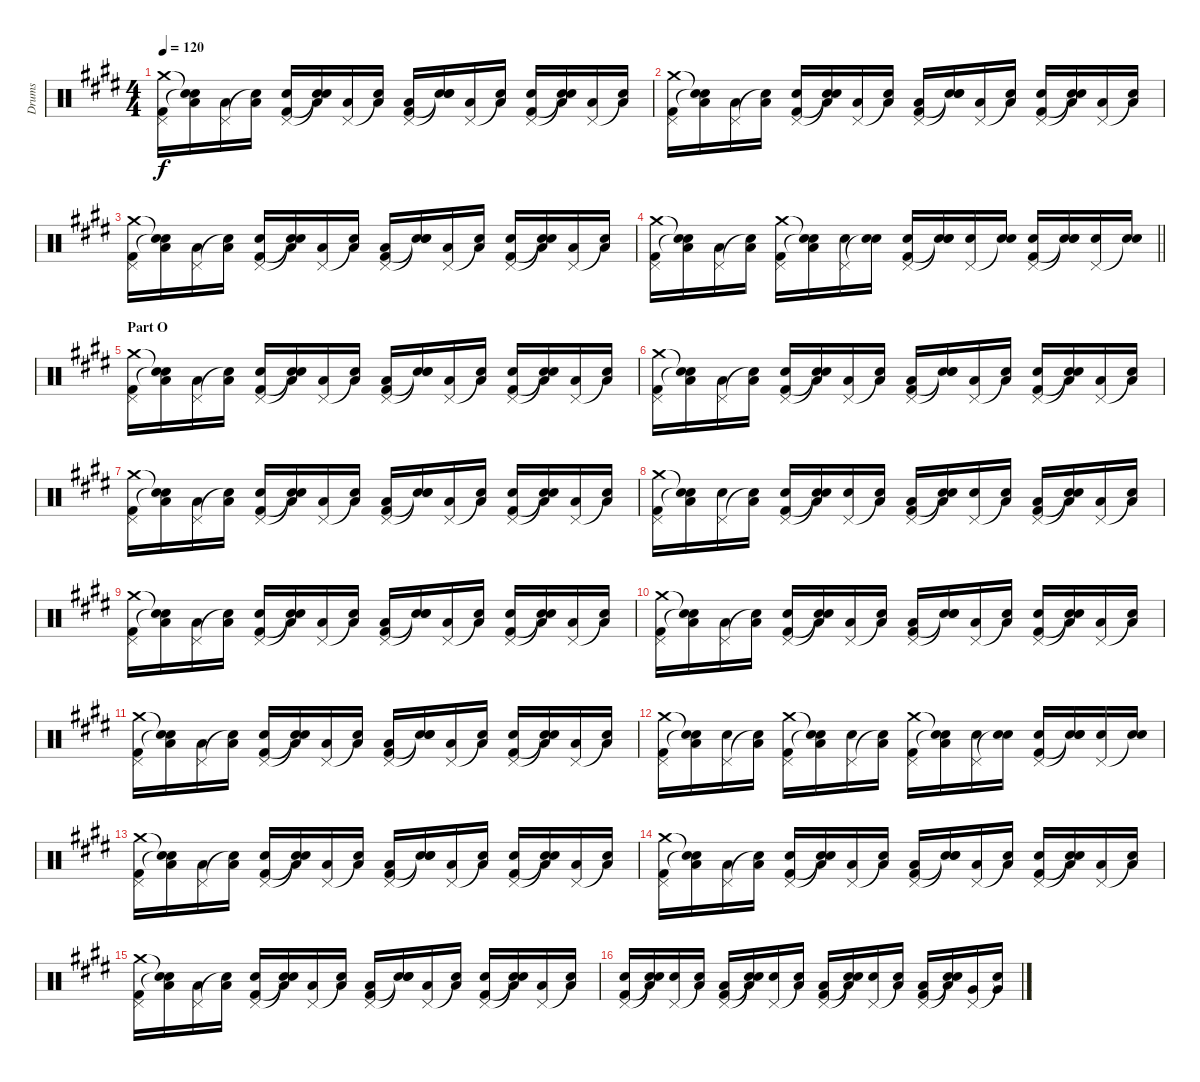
\track ("Drums" "Drums") {instrument percussion}
\staff {score}
\articulation defaults
\ts (4 4)
\tempo 120
\clef neutral
\ks e
("Crash medium (hit)" "Pedal Hi-Hat (hit)" "Kick (hit) 2").16{dy f} ("Snare (hit)"{t} "Low Floor Tom (hit)" "Snare (hit)"{t}).16 ("Pedal Hi-Hat (hit)" "Low Floor Tom (hit)").16 ("Snare (hit)"{t} "Low Floor Tom (hit)").16 ("Pedal Hi-Hat (hit)" "Electric Snare (hit)" "Kick (hit) 2").16 ("Snare (hit)"{t} "Low Floor Tom (hit)" "Snare (hit)"{t}).16 ("Pedal Hi-Hat (hit)" "Low Floor Tom (hit)").16 ("Snare (hit)"{t} "Low Floor Tom (hit)").16 ("Pedal Hi-Hat (hit)" "Low Floor Tom (hit)" "Kick (hit) 2").16 ("Snare (hit)"{t} "Electric Snare (hit)" "Snare (hit)"{t}).16 ("Pedal Hi-Hat (hit)" "Low Floor Tom (hit)").16 ("Snare (hit)"{t} "Low Floor Tom (hit)").16 ("Pedal Hi-Hat (hit)" "Electric Snare (hit)" "Kick (hit) 2").16 ("Snare (hit)"{t} "Low Floor Tom (hit)" "Snare (hit)"{t}).16 ("Pedal Hi-Hat (hit)" "Low Floor Tom (hit)").16 ("Snare (hit)"{t} "Low Floor Tom (hit)").16 |
("Crash medium (hit)" "Pedal Hi-Hat (hit)" "Kick (hit) 2").16 ("Snare (hit)"{t} "Low Floor Tom (hit)" "Snare (hit)"{t}).16 ("Pedal Hi-Hat (hit)" "Low Floor Tom (hit)").16 ("Snare (hit)"{t} "Low Floor Tom (hit)").16 ("Pedal Hi-Hat (hit)" "Electric Snare (hit)" "Kick (hit) 2").16 ("Snare (hit)"{t} "Low Floor Tom (hit)" "Snare (hit)"{t}).16 ("Pedal Hi-Hat (hit)" "Low Floor Tom (hit)").16 ("Snare (hit)"{t} "Low Floor Tom (hit)").16 ("Pedal Hi-Hat (hit)" "Low Floor Tom (hit)" "Kick (hit) 2").16 ("Snare (hit)"{t} "Electric Snare (hit)" "Snare (hit)"{t}).16 ("Pedal Hi-Hat (hit)" "Low Floor Tom (hit)").16 ("Snare (hit)"{t} "Low Floor Tom (hit)").16 ("Pedal Hi-Hat (hit)" "Electric Snare (hit)" "Kick (hit) 2").16 ("Snare (hit)"{t} "Low Floor Tom (hit)" "Snare (hit)"{t}).16 ("Pedal Hi-Hat (hit)" "Low Floor Tom (hit)").16 ("Snare (hit)"{t} "Low Floor Tom (hit)").16 |
("Crash medium (hit)" "Pedal Hi-Hat (hit)" "Kick (hit) 2").16 ("Snare (hit)"{t} "Low Floor Tom (hit)" "Snare (hit)"{t}).16 ("Pedal Hi-Hat (hit)" "Low Floor Tom (hit)").16 ("Snare (hit)"{t} "Low Floor Tom (hit)").16 ("Pedal Hi-Hat (hit)" "Electric Snare (hit)" "Kick (hit) 2").16 ("Snare (hit)"{t} "Low Floor Tom (hit)" "Snare (hit)"{t}).16 ("Pedal Hi-Hat (hit)" "Low Floor Tom (hit)").16 ("Snare (hit)"{t} "Low Floor Tom (hit)").16 ("Pedal Hi-Hat (hit)" "Low Floor Tom (hit)" "Kick (hit) 2").16 ("Snare (hit)"{t} "Electric Snare (hit)" "Snare (hit)"{t}).16 ("Pedal Hi-Hat (hit)" "Low Floor Tom (hit)").16 ("Snare (hit)"{t} "Low Floor Tom (hit)").16 ("Pedal Hi-Hat (hit)" "Electric Snare (hit)" "Kick (hit) 2").16 ("Snare (hit)"{t} "Low Floor Tom (hit)" "Snare (hit)"{t}).16 ("Pedal Hi-Hat (hit)" "Low Floor Tom (hit)").16 ("Snare (hit)"{t} "Low Floor Tom (hit)").16 |
\barLineRight lightlight
("Crash medium (hit)" "Pedal Hi-Hat (hit)" "Kick (hit) 2").16 ("Snare (hit)"{t} "Low Floor Tom (hit)" "Snare (hit)"{t}).16 ("Pedal Hi-Hat (hit)" "Low Floor Tom (hit)").16 ("Snare (hit)"{t} "Low Floor Tom (hit)").16 ("Crash medium (hit)" "Pedal Hi-Hat (hit)" "Kick (hit) 2").16 ("Snare (hit)"{t} "Low Floor Tom (hit)" "Snare (hit)"{t}).16 ("Pedal Hi-Hat (hit)" "Electric Snare (hit)").16 ("Snare (hit)"{t} "Electric Snare (hit)").16 ("Pedal Hi-Hat (hit)" "Electric Snare (hit)" "Kick (hit) 2").16 ("Snare (hit)"{t} "Electric Snare (hit)" "Snare (hit)"{t}).16 ("Pedal Hi-Hat (hit)" "Electric Snare (hit)").16 ("Snare (hit)"{t} "Electric Snare (hit)").16 ("Pedal Hi-Hat (hit)" "Electric Snare (hit)" "Kick (hit) 2").16 ("Snare (hit)"{t} "Electric Snare (hit)" "Snare (hit)"{t}).16 ("Pedal Hi-Hat (hit)" "Electric Snare (hit)").16 ("Snare (hit)"{t} "Electric Snare (hit)").16 |
\section ("" "Part O")
("Crash medium (hit)" "Pedal Hi-Hat (hit)" "Kick (hit) 2").16 ("Snare (hit)"{t} "Low Floor Tom (hit)" "Snare (hit)"{t}).16 ("Pedal Hi-Hat (hit)" "Low Floor Tom (hit)").16 ("Snare (hit)"{t} "Low Floor Tom (hit)").16 ("Pedal Hi-Hat (hit)" "Electric Snare (hit)" "Kick (hit) 2").16 ("Snare (hit)"{t} "Low Floor Tom (hit)" "Snare (hit)"{t}).16 ("Pedal Hi-Hat (hit)" "Low Floor Tom (hit)").16 ("Snare (hit)"{t} "Low Floor Tom (hit)").16 ("Pedal Hi-Hat (hit)" "Low Floor Tom (hit)" "Kick (hit) 2").16 ("Snare (hit)"{t} "Electric Snare (hit)" "Snare (hit)"{t}).16 ("Pedal Hi-Hat (hit)" "Low Floor Tom (hit)").16 ("Snare (hit)"{t} "Low Floor Tom (hit)").16 ("Pedal Hi-Hat (hit)" "Electric Snare (hit)" "Kick (hit) 2").16 ("Snare (hit)"{t} "Low Floor Tom (hit)" "Snare (hit)"{t}).16 ("Pedal Hi-Hat (hit)" "Low Floor Tom (hit)").16 ("Snare (hit)"{t} "Low Floor Tom (hit)").16 |
("Crash medium (hit)" "Pedal Hi-Hat (hit)" "Kick (hit) 2").16 ("Snare (hit)"{t} "Low Floor Tom (hit)" "Snare (hit)"{t}).16 ("Pedal Hi-Hat (hit)" "Low Floor Tom (hit)").16 ("Snare (hit)"{t} "Low Floor Tom (hit)").16 ("Pedal Hi-Hat (hit)" "Electric Snare (hit)" "Kick (hit) 2").16 ("Snare (hit)"{t} "Low Floor Tom (hit)" "Snare (hit)"{t}).16 ("Pedal Hi-Hat (hit)" "Low Floor Tom (hit)").16 ("Snare (hit)"{t} "Low Floor Tom (hit)").16 ("Pedal Hi-Hat (hit)" "Low Floor Tom (hit)" "Kick (hit) 2").16 ("Snare (hit)"{t} "Electric Snare (hit)" "Snare (hit)"{t}).16 ("Pedal Hi-Hat (hit)" "Low Floor Tom (hit)").16 ("Snare (hit)"{t} "Low Floor Tom (hit)").16 ("Pedal Hi-Hat (hit)" "Electric Snare (hit)" "Kick (hit) 2").16 ("Snare (hit)"{t} "Low Floor Tom (hit)" "Snare (hit)"{t}).16 ("Pedal Hi-Hat (hit)" "Low Floor Tom (hit)").16 ("Snare (hit)"{t} "Low Floor Tom (hit)").16 |
("Crash medium (hit)" "Pedal Hi-Hat (hit)" "Kick (hit) 2").16 ("Snare (hit)"{t} "Low Floor Tom (hit)" "Snare (hit)"{t}).16 ("Pedal Hi-Hat (hit)" "Low Floor Tom (hit)").16 ("Snare (hit)"{t} "Low Floor Tom (hit)").16 ("Pedal Hi-Hat (hit)" "Electric Snare (hit)" "Kick (hit) 2").16 ("Snare (hit)"{t} "Low Floor Tom (hit)" "Snare (hit)"{t}).16 ("Pedal Hi-Hat (hit)" "Low Floor Tom (hit)").16 ("Snare (hit)"{t} "Low Floor Tom (hit)").16 ("Pedal Hi-Hat (hit)" "Low Floor Tom (hit)" "Kick (hit) 2").16 ("Snare (hit)"{t} "Electric Snare (hit)" "Snare (hit)"{t}).16 ("Pedal Hi-Hat (hit)" "Low Floor Tom (hit)").16 ("Snare (hit)"{t} "Low Floor Tom (hit)").16 ("Pedal Hi-Hat (hit)" "Electric Snare (hit)" "Kick (hit) 2").16 ("Snare (hit)"{t} "Low Floor Tom (hit)" "Snare (hit)"{t}).16 ("Pedal Hi-Hat (hit)" "Low Floor Tom (hit)").16 ("Snare (hit)"{t} "Low Floor Tom (hit)").16 |
("Crash medium (hit)" "Pedal Hi-Hat (hit)" "Kick (hit) 2").16 ("Snare (hit)"{t} "Low Floor Tom (hit)" "Snare (hit)"{t}).16 ("Pedal Hi-Hat (hit)" "Electric Snare (hit)").16 ("Snare (hit)"{t} "Low Floor Tom (hit)").16 ("Pedal Hi-Hat (hit)" "Electric Snare (hit)" "Kick (hit) 2").16 ("Snare (hit)"{t} "Low Floor Tom (hit)" "Snare (hit)"{t}).16 ("Pedal Hi-Hat (hit)" "Electric Snare (hit)").16 ("Snare (hit)"{t} "Low Floor Tom (hit)").16 ("Pedal Hi-Hat (hit)" "Low Floor Tom (hit)" "Kick (hit) 2").16 ("Snare (hit)"{t} "Low Floor Tom (hit)" "Snare (hit)"{t}).16 ("Pedal Hi-Hat (hit)" "Electric Snare (hit)").16 ("Snare (hit)"{t} "Low Floor Tom (hit)").16 ("Pedal Hi-Hat (hit)" "Low Floor Tom (hit)" "Kick (hit) 2").16 ("Snare (hit)"{t} "Low Floor Tom (hit)" "Snare (hit)"{t}).16 ("Pedal Hi-Hat (hit)" "Low Floor Tom (hit)").16 ("Snare (hit)"{t} "Low Floor Tom (hit)").16 |
("Crash medium (hit)" "Pedal Hi-Hat (hit)" "Kick (hit) 2").16 ("Snare (hit)"{t} "Low Floor Tom (hit)" "Snare (hit)"{t}).16 ("Pedal Hi-Hat (hit)" "Low Floor Tom (hit)").16 ("Snare (hit)"{t} "Low Floor Tom (hit)").16 ("Pedal Hi-Hat (hit)" "Electric Snare (hit)" "Kick (hit) 2").16 ("Snare (hit)"{t} "Low Floor Tom (hit)" "Snare (hit)"{t}).16 ("Pedal Hi-Hat (hit)" "Low Floor Tom (hit)").16 ("Snare (hit)"{t} "Low Floor Tom (hit)").16 ("Pedal Hi-Hat (hit)" "Low Floor Tom (hit)" "Kick (hit) 2").16 ("Snare (hit)"{t} "Electric Snare (hit)" "Snare (hit)"{t}).16 ("Pedal Hi-Hat (hit)" "Low Floor Tom (hit)").16 ("Snare (hit)"{t} "Low Floor Tom (hit)").16 ("Pedal Hi-Hat (hit)" "Electric Snare (hit)" "Kick (hit) 2").16 ("Snare (hit)"{t} "Low Floor Tom (hit)" "Snare (hit)"{t}).16 ("Pedal Hi-Hat (hit)" "Low Floor Tom (hit)").16 ("Snare (hit)"{t} "Low Floor Tom (hit)").16 |
("Crash medium (hit)" "Pedal Hi-Hat (hit)" "Kick (hit) 2").16 ("Snare (hit)"{t} "Low Floor Tom (hit)" "Snare (hit)"{t}).16 ("Pedal Hi-Hat (hit)" "Low Floor Tom (hit)").16 ("Snare (hit)"{t} "Low Floor Tom (hit)").16 ("Pedal Hi-Hat (hit)" "Electric Snare (hit)" "Kick (hit) 2").16 ("Snare (hit)"{t} "Low Floor Tom (hit)" "Snare (hit)"{t}).16 ("Pedal Hi-Hat (hit)" "Low Floor Tom (hit)").16 ("Snare (hit)"{t} "Low Floor Tom (hit)").16 ("Pedal Hi-Hat (hit)" "Low Floor Tom (hit)" "Kick (hit) 2").16 ("Snare (hit)"{t} "Electric Snare (hit)" "Snare (hit)"{t}).16 ("Pedal Hi-Hat (hit)" "Low Floor Tom (hit)").16 ("Snare (hit)"{t} "Low Floor Tom (hit)").16 ("Pedal Hi-Hat (hit)" "Electric Snare (hit)" "Kick (hit) 2").16 ("Snare (hit)"{t} "Low Floor Tom (hit)" "Snare (hit)"{t}).16 ("Pedal Hi-Hat (hit)" "Low Floor Tom (hit)").16 ("Snare (hit)"{t} "Low Floor Tom (hit)").16 |
("Crash medium (hit)" "Pedal Hi-Hat (hit)" "Kick (hit) 2").16 ("Snare (hit)"{t} "Low Floor Tom (hit)" "Snare (hit)"{t}).16 ("Pedal Hi-Hat (hit)" "Low Floor Tom (hit)").16 ("Snare (hit)"{t} "Low Floor Tom (hit)").16 ("Pedal Hi-Hat (hit)" "Electric Snare (hit)" "Kick (hit) 2").16 ("Snare (hit)"{t} "Low Floor Tom (hit)" "Snare (hit)"{t}).16 ("Pedal Hi-Hat (hit)" "Low Floor Tom (hit)").16 ("Snare (hit)"{t} "Low Floor Tom (hit)").16 ("Pedal Hi-Hat (hit)" "Low Floor Tom (hit)" "Kick (hit) 2").16 ("Snare (hit)"{t} "Electric Snare (hit)" "Snare (hit)"{t}).16 ("Pedal Hi-Hat (hit)" "Low Floor Tom (hit)").16 ("Snare (hit)"{t} "Low Floor Tom (hit)").16 ("Pedal Hi-Hat (hit)" "Electric Snare (hit)" "Kick (hit) 2").16 ("Snare (hit)"{t} "Low Floor Tom (hit)" "Snare (hit)"{t}).16 ("Pedal Hi-Hat (hit)" "Low Floor Tom (hit)").16 ("Snare (hit)"{t} "Low Floor Tom (hit)").16 |
("Crash medium (hit)" "Pedal Hi-Hat (hit)" "Kick (hit) 2").16 ("Snare (hit)"{t} "Low Floor Tom (hit)" "Snare (hit)"{t}).16 ("Pedal Hi-Hat (hit)" "Electric Snare (hit)").16 ("Snare (hit)"{t} "Low Floor Tom (hit)").16 ("Crash medium (hit)" "Pedal Hi-Hat (hit)" "Kick (hit) 2").16 ("Snare (hit)"{t} "Low Floor Tom (hit)" "Snare (hit)"{t}).16 ("Pedal Hi-Hat (hit)" "Electric Snare (hit)").16 ("Snare (hit)"{t} "Low Floor Tom (hit)").16 ("Crash medium (hit)" "Pedal Hi-Hat (hit)" "Kick (hit) 2").16 ("Snare (hit)"{t} "Low Floor Tom (hit)" "Snare (hit)"{t}).16 ("Pedal Hi-Hat (hit)" "Electric Snare (hit)").16 ("Snare (hit)"{t} "Electric Snare (hit)").16 ("Pedal Hi-Hat (hit)" "Electric Snare (hit)" "Kick (hit) 2").16 ("Snare (hit)"{t} "Electric Snare (hit)" "Snare (hit)"{t}).16 ("Pedal Hi-Hat (hit)" "Electric Snare (hit)").16 ("Snare (hit)"{t} "Electric Snare (hit)").16 |
("Crash medium (hit)" "Pedal Hi-Hat (hit)" "Kick (hit) 2").16 ("Snare (hit)"{t} "Low Floor Tom (hit)" "Snare (hit)"{t}).16 ("Pedal Hi-Hat (hit)" "Low Floor Tom (hit)").16 ("Snare (hit)"{t} "Low Floor Tom (hit)").16 ("Pedal Hi-Hat (hit)" "Electric Snare (hit)" "Kick (hit) 2").16 ("Snare (hit)"{t} "Low Floor Tom (hit)" "Snare (hit)"{t}).16 ("Pedal Hi-Hat (hit)" "Low Floor Tom (hit)").16 ("Snare (hit)"{t} "Low Floor Tom (hit)").16 ("Pedal Hi-Hat (hit)" "Low Floor Tom (hit)" "Kick (hit) 2").16 ("Snare (hit)"{t} "Electric Snare (hit)" "Snare (hit)"{t}).16 ("Pedal Hi-Hat (hit)" "Low Floor Tom (hit)").16 ("Snare (hit)"{t} "Low Floor Tom (hit)").16 ("Pedal Hi-Hat (hit)" "Electric Snare (hit)" "Kick (hit) 2").16 ("Snare (hit)"{t} "Low Floor Tom (hit)" "Snare (hit)"{t}).16 ("Pedal Hi-Hat (hit)" "Low Floor Tom (hit)").16 ("Snare (hit)"{t} "Low Floor Tom (hit)").16 |
("Crash medium (hit)" "Pedal Hi-Hat (hit)" "Kick (hit) 2").16 ("Snare (hit)"{t} "Low Floor Tom (hit)" "Snare (hit)"{t}).16 ("Pedal Hi-Hat (hit)" "Low Floor Tom (hit)").16 ("Snare (hit)"{t} "Low Floor Tom (hit)").16 ("Pedal Hi-Hat (hit)" "Electric Snare (hit)" "Kick (hit) 2").16 ("Snare (hit)"{t} "Low Floor Tom (hit)" "Snare (hit)"{t}).16 ("Pedal Hi-Hat (hit)" "Low Floor Tom (hit)").16 ("Snare (hit)"{t} "Low Floor Tom (hit)").16 ("Pedal Hi-Hat (hit)" "Low Floor Tom (hit)" "Kick (hit) 2").16 ("Snare (hit)"{t} "Electric Snare (hit)" "Snare (hit)"{t}).16 ("Pedal Hi-Hat (hit)" "Low Floor Tom (hit)").16 ("Snare (hit)"{t} "Low Floor Tom (hit)").16 ("Pedal Hi-Hat (hit)" "Electric Snare (hit)" "Kick (hit) 2").16 ("Snare (hit)"{t} "Low Floor Tom (hit)" "Snare (hit)"{t}).16 ("Pedal Hi-Hat (hit)" "Low Floor Tom (hit)").16 ("Snare (hit)"{t} "Low Floor Tom (hit)").16 |
("Crash medium (hit)" "Pedal Hi-Hat (hit)" "Kick (hit) 2").16 ("Snare (hit)"{t} "Low Floor Tom (hit)" "Snare (hit)"{t}).16 ("Pedal Hi-Hat (hit)" "Low Floor Tom (hit)").16 ("Snare (hit)"{t} "Low Floor Tom (hit)").16 ("Pedal Hi-Hat (hit)" "Electric Snare (hit)" "Kick (hit) 2").16 ("Snare (hit)"{t} "Low Floor Tom (hit)" "Snare (hit)"{t}).16 ("Pedal Hi-Hat (hit)" "Low Floor Tom (hit)").16 ("Snare (hit)"{t} "Low Floor Tom (hit)").16 ("Pedal Hi-Hat (hit)" "Low Floor Tom (hit)" "Kick (hit) 2").16 ("Snare (hit)"{t} "Electric Snare (hit)" "Snare (hit)"{t}).16 ("Pedal Hi-Hat (hit)" "Low Floor Tom (hit)").16 ("Snare (hit)"{t} "Low Floor Tom (hit)").16 ("Pedal Hi-Hat (hit)" "Electric Snare (hit)" "Kick (hit) 2").16 ("Snare (hit)"{t} "Low Floor Tom (hit)" "Snare (hit)"{t}).16 ("Pedal Hi-Hat (hit)" "Low Floor Tom (hit)").16 ("Snare (hit)"{t} "Low Floor Tom (hit)").16 |
("Pedal Hi-Hat (hit)" "Electric Snare (hit)" "Kick (hit) 2").16 ("Snare (hit)"{t} "Low Floor Tom (hit)" "Snare (hit)"{t}).16 ("Pedal Hi-Hat (hit)" "Electric Snare (hit)").16 ("Snare (hit)"{t} "Low Floor Tom (hit)").16 ("Pedal Hi-Hat (hit)" "Low Floor Tom (hit)" "Kick (hit) 2").16 ("Snare (hit)"{t} "Low Floor Tom (hit)" "Snare (hit)"{t}).16 ("Pedal Hi-Hat (hit)" "Electric Snare (hit)").16 ("Snare (hit)"{t} "Low Floor Tom (hit)").16 ("Pedal Hi-Hat (hit)" "Low Floor Tom (hit)" "Kick (hit) 2").16 ("Snare (hit)"{t} "Low Floor Tom (hit)" "Snare (hit)"{t}).16 ("Pedal Hi-Hat (hit)" "Electric Snare (hit)").16 ("Snare (hit)"{t} "Low Tom (hit)").16 ("Pedal Hi-Hat (hit)" "Low Tom (hit)" "Kick (hit) 2").16 ("Snare (hit)"{t} "Low Tom (hit)" "Snare (hit)"{t}).16 ("Pedal Hi-Hat (hit)" "Very Low Tom (hit)").16 ("Snare (hit)"{t} "Very Low Tom (hit)").16
